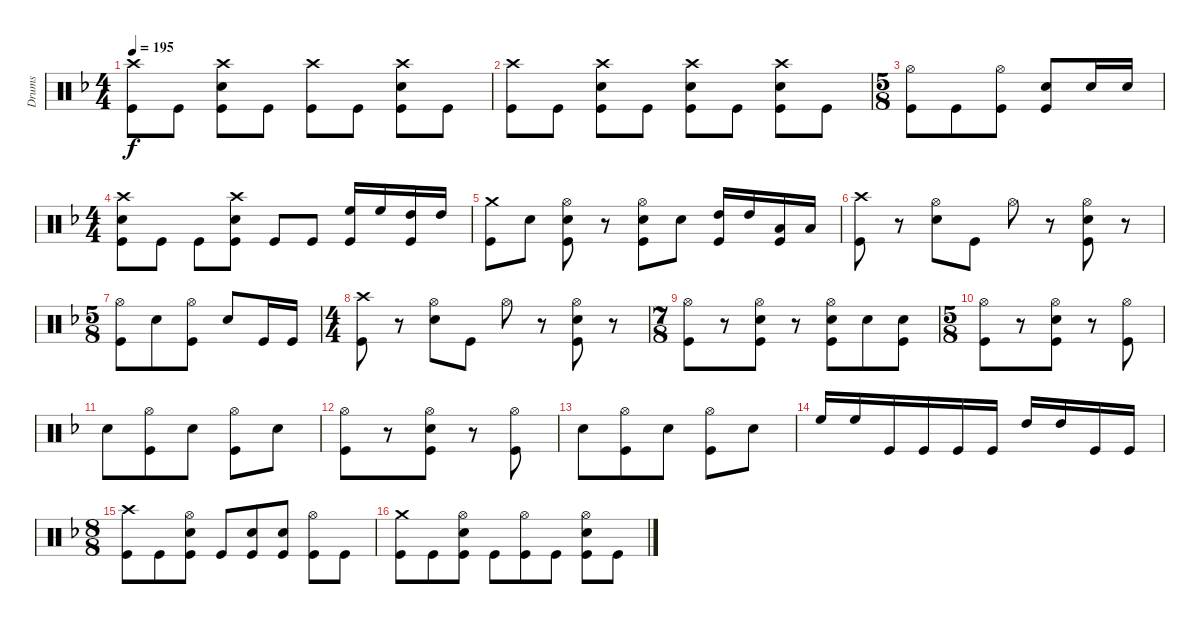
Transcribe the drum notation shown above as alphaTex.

\track ("Drums" "Drums") {instrument percussion}
\staff {score}
\articulation defaults
\ts (4 4)
\tempo 195
\clef neutral
\ks f
("Crash high (hit)" "Kick (hit)").8{dy f} "Kick (hit)".8 ("Crash high (hit)" "Electric Snare (hit)" "Kick (hit)").8 "Kick (hit)".8 ("Crash high (hit)" "Kick (hit)").8 "Kick (hit)".8 ("Crash high (hit)" "Electric Snare (hit)" "Kick (hit)").8 "Kick (hit)".8 |
("Crash high (hit)" "Kick (hit)").8 "Kick (hit)".8 ("Crash high (hit)" "Electric Snare (hit)" "Kick (hit)").8 "Kick (hit)".8 ("Crash high (hit)" "Electric Snare (hit)" "Kick (hit)").8 "Kick (hit)".8 ("Crash high (hit)" "Electric Snare (hit)" "Kick (hit)").8 "Kick (hit)".8 |
\ts (5 8)
("Hi-Hat (open)" "Kick (hit)").8 "Kick (hit)".8 ("Hi-Hat (open)" "Kick (hit)").8 ("Electric Snare (hit)" "Kick (hit)").8 "Electric Snare (hit)".16 "Electric Snare (hit)".16 |
\ts (4 4)
("Crash high (hit)" "Electric Snare (hit)" "Kick (hit)").8 "Kick (hit)".8 "Kick (hit)".8 ("Crash high (hit)" "Electric Snare (hit)" "Kick (hit)").8 "Kick (hit)".8 "Kick (hit)".8 ("High Floor Tom (hit)" "Kick (hit)").16 "High Floor Tom (hit)".16 ("High Tom (hit)" "Kick (hit)").16 "High Tom (hit)".16 |
("Crash medium (hit)" "Kick (hit)").8 "Electric Snare (hit)".8 ("Hi-Hat (open)" "Electric Snare (hit)" "Kick (hit)").8 r.8 ("Hi-Hat (open)" "Electric Snare (hit)" "Kick (hit)").8 "Electric Snare (hit)".8 ("High Tom (hit)" "Kick (hit)").16 "High Tom (hit)".16 ("Low Tom (hit)" "Kick (hit)").16 "Low Tom (hit)".16 |
("Crash high (hit)" "Kick (hit)").8 r.8 ("Hi-Hat (open)" "Electric Snare (hit)").8 "Kick (hit)".8 "Hi-Hat (open)".8 r.8 ("Hi-Hat (open)" "Electric Snare (hit)" "Kick (hit)").8 r.8 |
\ts (5 8)
("Hi-Hat (open)" "Kick (hit)").8 "Electric Snare (hit)".8 ("Hi-Hat (open)" "Kick (hit)").8 "Electric Snare (hit)".8 "Kick (hit)".16 "Kick (hit)".16 |
\ts (4 4)
("Crash high (hit)" "Kick (hit)").8 r.8 ("Hi-Hat (open)" "Electric Snare (hit)").8 "Kick (hit)".8 "Hi-Hat (open)".8 r.8 ("Hi-Hat (open)" "Electric Snare (hit)" "Kick (hit)").8 r.8 |
\ts (7 8)
("Hi-Hat (open)" "Kick (hit)").8 r.8 ("Hi-Hat (open)" "Electric Snare (hit)" "Kick (hit)").8 r.8 ("Hi-Hat (open)" "Electric Snare (hit)" "Kick (hit)").8 "Electric Snare (hit)".8 ("Electric Snare (hit)" "Kick (hit)").8 |
\ts (5 8)
("Hi-Hat (open)" "Kick (hit)").8 r.8 ("Hi-Hat (open)" "Electric Snare (hit)" "Kick (hit)").8 r.8 ("Hi-Hat (open)" "Kick (hit)").8 |
"Electric Snare (hit)".8 ("Hi-Hat (open)" "Kick (hit)").8 "Electric Snare (hit)".8 ("Hi-Hat (open)" "Kick (hit)").8 "Electric Snare (hit)".8 |
("Hi-Hat (open)" "Kick (hit)").8 r.8 ("Hi-Hat (open)" "Electric Snare (hit)" "Kick (hit)").8 r.8 ("Hi-Hat (open)" "Kick (hit)").8 |
"Electric Snare (hit)".8 ("Hi-Hat (open)" "Kick (hit)").8 "Electric Snare (hit)".8 ("Hi-Hat (open)" "Kick (hit)").8 "Electric Snare (hit)".8 |
"High Floor Tom (hit)".16 "High Floor Tom (hit)".16 "Kick (hit)".16 "Kick (hit)".16 "Kick (hit)".16 "Kick (hit)".16 "High Tom (hit)".16 "High Tom (hit)".16 "Kick (hit)".16 "Kick (hit)".16 |
\ts (8 8)
("Crash high (hit)" "Kick (hit)").8 "Kick (hit)".8 ("Hi-Hat (open)" "Electric Snare (hit)" "Kick (hit)").8 "Kick (hit)".8 ("Electric Snare (hit)" "Kick (hit)").8 ("Electric Snare (hit)" "Kick (hit)").8 ("Hi-Hat (open)" "Kick (hit)").8 "Kick (hit)".8 |
("Crash medium (hit)" "Kick (hit)").8 "Kick (hit)".8 ("Hi-Hat (open)" "Electric Snare (hit)" "Kick (hit)").8 "Kick (hit)".8 ("Hi-Hat (open)" "Kick (hit)").8 "Kick (hit)".8 ("Hi-Hat (open)" "Electric Snare (hit)" "Kick (hit)").8 "Kick (hit)".8
